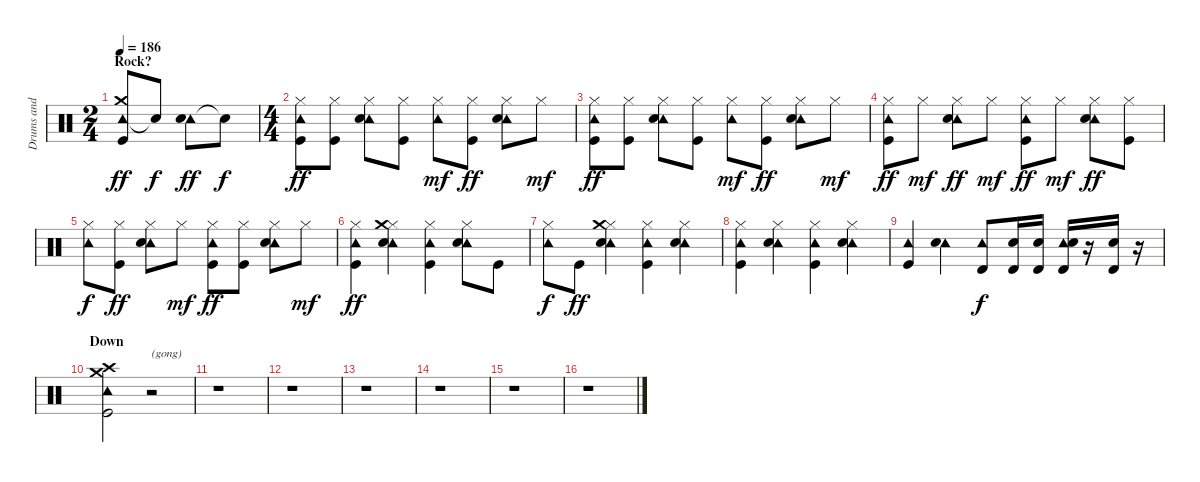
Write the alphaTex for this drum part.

\track ("Drums and Percs" "Drums and ") {instrument percussion}
\staff {score}
\articulation defaults
\ts (2 4)
\section ("" "Rock?")
\tempo 186
\clef neutral
\ks c
("Tambourine (hit)" "Crash medium (hit)" "Kick (hit)").8{dy ff} "Snare (hit)"{t}.8{dy f} ("Tambourine (hit)" "Electric Snare (hit)").8{dy ff} "Snare (hit)"{t}.8{dy f} |
\ts (4 4)
("Hi-Hat (closed)" "Tambourine (hit)" "Kick (hit)").8{dy ff} ("Hi-Hat (closed)" "Kick (hit)").8 ("Hi-Hat (closed)" "Tambourine (hit)" "Electric Snare (hit)").8 ("Hi-Hat (closed)" "Kick (hit)").8 ("Hi-Hat (closed)" "Tambourine (hit)").8{dy mf} ("Hi-Hat (closed)" "Kick (hit)").8{dy ff} ("Hi-Hat (closed)" "Tambourine (hit)" "Electric Snare (hit)").8 "Hi-Hat (closed)".8{dy mf} |
("Hi-Hat (closed)" "Tambourine (hit)" "Kick (hit)").8{dy ff} ("Hi-Hat (closed)" "Kick (hit)").8 ("Hi-Hat (closed)" "Tambourine (hit)" "Electric Snare (hit)").8 ("Hi-Hat (closed)" "Kick (hit)").8 ("Hi-Hat (closed)" "Tambourine (hit)").8{dy mf} ("Hi-Hat (closed)" "Kick (hit)").8{dy ff} ("Hi-Hat (closed)" "Tambourine (hit)" "Electric Snare (hit)").8 "Hi-Hat (closed)".8{dy mf} |
("Hi-Hat (closed)" "Tambourine (hit)" "Kick (hit)").8{dy ff} "Hi-Hat (closed)".8{dy mf} ("Hi-Hat (closed)" "Tambourine (hit)" "Electric Snare (hit)").8{dy ff} "Hi-Hat (closed)".8{dy mf} ("Hi-Hat (closed)" "Tambourine (hit)" "Kick (hit)").8{dy ff} "Hi-Hat (closed)".8{dy mf} ("Hi-Hat (closed)" "Tambourine (hit)" "Electric Snare (hit)").8{dy ff} ("Hi-Hat (closed)" "Kick (hit)").8 |
("Hi-Hat (closed)" "Tambourine (hit)").8{dy f} ("Hi-Hat (closed)" "Kick (hit)").8{dy ff} ("Hi-Hat (closed)" "Tambourine (hit)" "Electric Snare (hit)").8 "Hi-Hat (closed)".8{dy mf} ("Hi-Hat (closed)" "Tambourine (hit)" "Kick (hit)").8{dy ff} ("Hi-Hat (closed)" "Kick (hit)").8 ("Hi-Hat (closed)" "Tambourine (hit)" "Electric Snare (hit)").8 "Hi-Hat (closed)".8{dy mf} |
("Hi-Hat (closed)" "Tambourine (hit)" "Kick (hit)").4{dy ff} ("Hi-Hat (closed)" "Tambourine (hit)" "Crash medium (hit)" "Electric Snare (hit)").4 ("Hi-Hat (closed)" "Tambourine (hit)" "Kick (hit)").4 ("Hi-Hat (closed)" "Tambourine (hit)" "Electric Snare (hit)").8 "Kick (hit)".8 |
("Hi-Hat (closed)" "Tambourine (hit)").8{dy f} "Kick (hit)".8{dy ff} ("Hi-Hat (closed)" "Tambourine (hit)" "Crash medium (hit)" "Electric Snare (hit)").4 ("Hi-Hat (closed)" "Tambourine (hit)" "Kick (hit)").4 ("Hi-Hat (closed)" "Tambourine (hit)" "Electric Snare (hit)").4 |
("Hi-Hat (closed)" "Tambourine (hit)" "Kick (hit)").4 ("Hi-Hat (closed)" "Tambourine (hit)" "Electric Snare (hit)").4 ("Hi-Hat (closed)" "Tambourine (hit)" "Kick (hit)").4 ("Hi-Hat (closed)" "Tambourine (hit)" "Electric Snare (hit)").4 |
("Tambourine (hit)" "Kick (hit)").4 ("Tambourine (hit)" "Electric Snare (hit)").4 ("Tambourine (hit)" "Timbale high (hit)").8{dy f} ("Timbale high (hit)" "Electric Snare (hit)").16 ("Timbale high (hit)" "Electric Snare (hit)").16 ("Tambourine (hit)" "Timbale high (hit)" "Electric Snare (hit)").16 r.16 ("Timbale high (hit)" "Electric Snare (hit)").16 r.16 |
\section ("" "Down")
("Tambourine (hit)" "Crash medium (hit)" "Crash high (hit)" "Kick (hit)").2 r.2{txt "(gong)"} |
r.1 |
r.1 |
r.1 |
r.1 |
r.1 |
r.1
